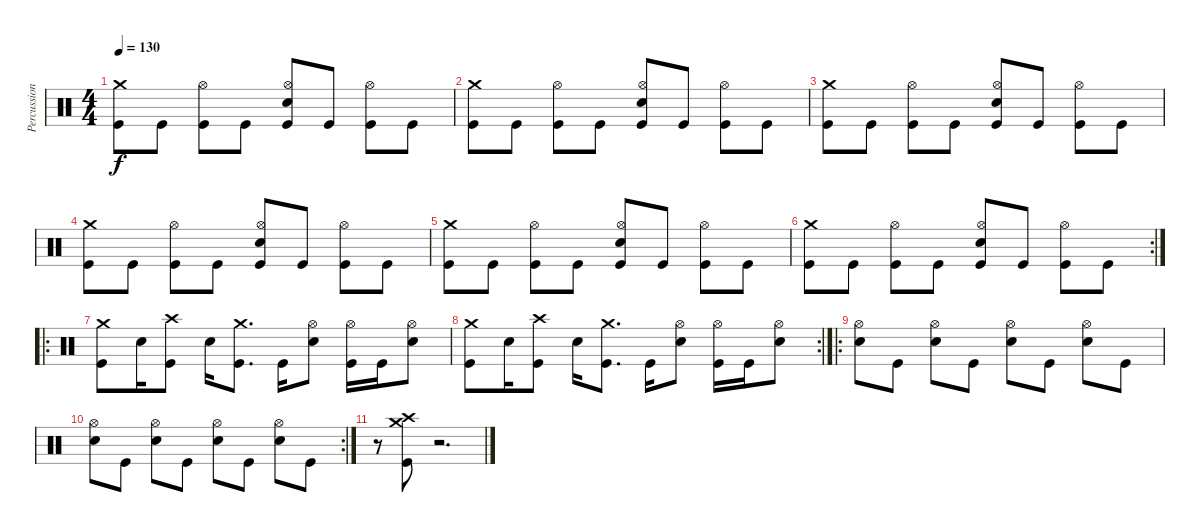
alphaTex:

\track ("Percussion" "Percussion") {instrument percussion}
\staff {score}
\articulation defaults
\ts (4 4)
\tempo 130
\clef neutral
\ks c
("Crash medium (hit)" "Kick (hit)").8{dy f} "Kick (hit)".8 ("Hi-Hat (open)" "Kick (hit)").8 "Kick (hit)".8 ("Hi-Hat (open)" "Snare (hit) 2" "Kick (hit)").8 "Kick (hit)".8 ("Hi-Hat (open)" "Kick (hit)").8 "Kick (hit)".8 |
("Crash medium (hit)" "Kick (hit)").8 "Kick (hit)".8 ("Hi-Hat (open)" "Kick (hit)").8 "Kick (hit)".8 ("Hi-Hat (open)" "Snare (hit) 2" "Kick (hit)").8 "Kick (hit)".8 ("Hi-Hat (open)" "Kick (hit)").8 "Kick (hit)".8 |
("Crash medium (hit)" "Kick (hit)").8 "Kick (hit)".8 ("Hi-Hat (open)" "Kick (hit)").8 "Kick (hit)".8 ("Hi-Hat (open)" "Snare (hit) 2" "Kick (hit)").8 "Kick (hit)".8 ("Hi-Hat (open)" "Kick (hit)").8 "Kick (hit)".8 |
("Crash medium (hit)" "Kick (hit)").8 "Kick (hit)".8 ("Hi-Hat (open)" "Kick (hit)").8 "Kick (hit)".8 ("Hi-Hat (open)" "Snare (hit) 2" "Kick (hit)").8 "Kick (hit)".8 ("Hi-Hat (open)" "Kick (hit)").8 "Kick (hit)".8 |
("Crash medium (hit)" "Kick (hit)").8 "Kick (hit)".8 ("Hi-Hat (open)" "Kick (hit)").8 "Kick (hit)".8 ("Hi-Hat (open)" "Snare (hit) 2" "Kick (hit)").8 "Kick (hit)".8 ("Hi-Hat (open)" "Kick (hit)").8 "Kick (hit)".8 |
\rc 2
("Crash medium (hit)" "Kick (hit)").8 "Kick (hit)".8 ("Hi-Hat (open)" "Kick (hit)").8 "Kick (hit)".8 ("Hi-Hat (open)" "Snare (hit) 2" "Kick (hit)").8 "Kick (hit)".8 ("Hi-Hat (open)" "Kick (hit)").8 "Kick (hit)".8 |
\ro
("Crash medium (hit)" "Kick (hit)").8 "Snare (hit) 2".16 ("Crash high (hit)" "Kick (hit)").8 "Snare (hit) 2".16 ("Crash medium (hit)" "Kick (hit)").8{d} "Kick (hit)".16 ("Hi-Hat (open)" "Snare (hit) 2").8 ("Hi-Hat (open)" "Kick (hit)").16 "Kick (hit)".16 ("Hi-Hat (open)" "Snare (hit) 2").8 |
\rc 2
("Crash medium (hit)" "Kick (hit)").8 "Snare (hit) 2".16 ("Crash high (hit)" "Kick (hit)").8 "Snare (hit) 2".16 ("Crash medium (hit)" "Kick (hit)").8{d} "Kick (hit)".16 ("Hi-Hat (open)" "Snare (hit) 2").8 ("Hi-Hat (open)" "Kick (hit)").16 "Kick (hit)".16 ("Hi-Hat (open)" "Snare (hit) 2").8 |
\ro
("Hi-Hat (open)" "Snare (hit) 2").8 "Kick (hit)".8 ("Hi-Hat (open)" "Snare (hit) 2").8 "Kick (hit)".8 ("Hi-Hat (open)" "Snare (hit) 2").8 "Kick (hit)".8 ("Hi-Hat (open)" "Snare (hit) 2").8 "Kick (hit)".8 |
\rc 2
("Hi-Hat (open)" "Snare (hit) 2").8 "Kick (hit)".8 ("Hi-Hat (open)" "Snare (hit) 2").8 "Kick (hit)".8 ("Hi-Hat (open)" "Snare (hit) 2").8 "Kick (hit)".8 ("Hi-Hat (open)" "Snare (hit) 2").8 "Kick (hit)".8 |
r.8 ("Crash medium (hit)" "Crash high (hit)" "Kick (hit)").8 r.2{d}
